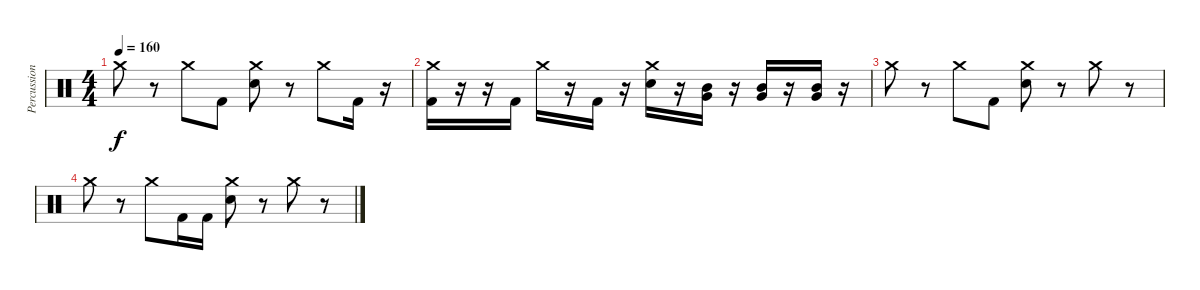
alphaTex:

\track ("Percussion" "Percussion") {instrument percussion}
\staff {score}
\articulation defaults
\ts (4 4)
\tempo 160
\clef neutral
\ks c "Crash medium (hit)".8{dy f}
r.8 "Crash medium (hit)".8 "Kick (hit) 2".8 ("Crash medium (hit)" "Electric Snare (hit)").8 r.8 "Crash medium (hit)".8 "Kick (hit) 2".16 r.16 |
("Crash medium (hit)" "Kick (hit) 2").16 r.16 r.16 "Kick (hit) 2".16 "Crash medium (hit)".16 r.16 "Kick (hit) 2".16 r.16 ("Crash medium (hit)" "Electric Snare (hit)").16 r.16 ("Mid Tom (hit)" "Very Low Tom (hit)").16 r.16 ("Mid Tom (hit)" "Very Low Tom (hit)").16 r.16 ("Mid Tom (hit)" "Very Low Tom (hit)").16 r.16 |
"Crash medium (hit)".8 r.8 "Crash medium (hit)".8 "Kick (hit) 2".8 ("Crash medium (hit)" "Electric Snare (hit)").8 r.8 "Crash medium (hit)".8 r.8 |
"Crash medium (hit)".8 r.8 "Crash medium (hit)".8 "Kick (hit) 2".16 "Kick (hit) 2".16 ("Crash medium (hit)" "Electric Snare (hit)").8 r.8 "Crash medium (hit)".8 r.8
